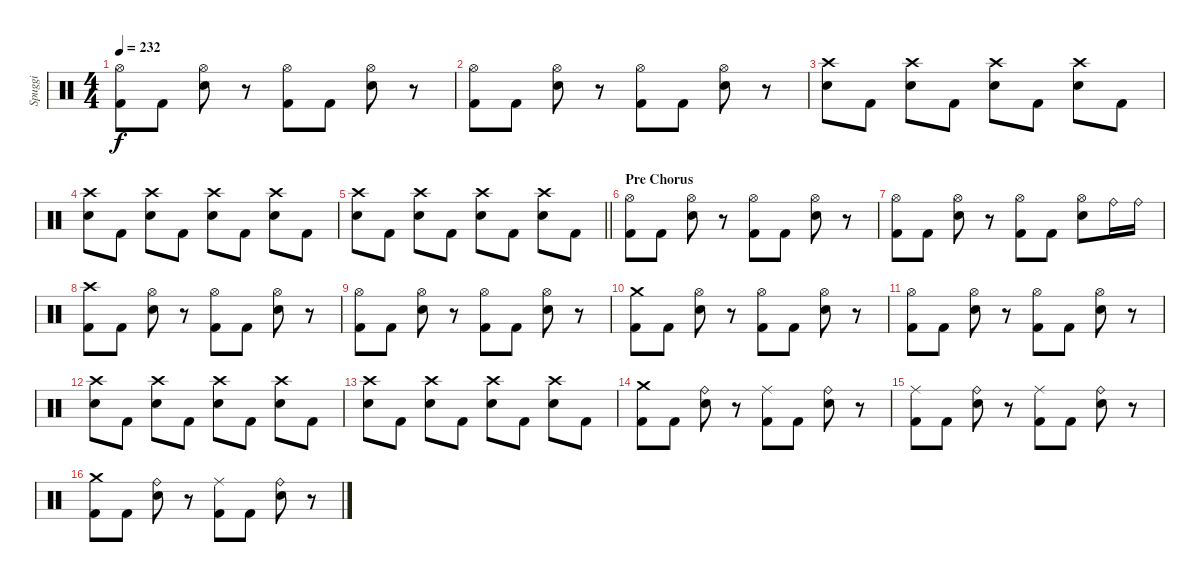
\track ("Spuggi" "Spuggi") {instrument percussion}
\staff {score}
\articulation defaults
\ts (4 4)
\tempo 232
\clef neutral
\ks c
("Hi-Hat (open)" "Kick (hit) 2").8{dy f} "Kick (hit) 2".8 ("Hi-Hat (open)" "Snare (hit) 2").8 r.8 ("Hi-Hat (open)" "Kick (hit) 2").8 "Kick (hit) 2".8 ("Hi-Hat (open)" "Snare (hit) 2").8 r.8 |
("Hi-Hat (open)" "Kick (hit) 2").8 "Kick (hit) 2".8 ("Hi-Hat (open)" "Snare (hit) 2").8 r.8 ("Hi-Hat (open)" "Kick (hit) 2").8 "Kick (hit) 2".8 ("Hi-Hat (open)" "Snare (hit) 2").8 r.8 |
("Crash high (hit)" "Snare (hit) 2").8 "Kick (hit) 2".8 ("Crash high (hit)" "Snare (hit) 2").8 "Kick (hit) 2".8 ("Crash high (hit)" "Snare (hit) 2").8 "Kick (hit) 2".8 ("Crash high (hit)" "Snare (hit) 2").8 "Kick (hit) 2".8 |
("Crash high (hit)" "Snare (hit) 2").8 "Kick (hit) 2".8 ("Crash high (hit)" "Snare (hit) 2").8 "Kick (hit) 2".8 ("Crash high (hit)" "Snare (hit) 2").8 "Kick (hit) 2".8 ("Crash high (hit)" "Snare (hit) 2").8 "Kick (hit) 2".8 |
\barLineRight lightlight
("Crash high (hit)" "Snare (hit) 2").8 "Kick (hit) 2".8 ("Crash high (hit)" "Snare (hit) 2").8 "Kick (hit) 2".8 ("Crash high (hit)" "Snare (hit) 2").8 "Kick (hit) 2".8 ("Crash high (hit)" "Snare (hit) 2").8 "Kick (hit) 2".8 |
\section ("" "Pre Chorus ")
("Hi-Hat (open)" "Kick (hit) 2").8 "Kick (hit) 2".8 ("Hi-Hat (open)" "Snare (hit) 2").8 r.8 ("Hi-Hat (open)" "Kick (hit) 2").8 "Kick (hit) 2".8 ("Hi-Hat (open)" "Snare (hit) 2").8 r.8 |
("Hi-Hat (open)" "Kick (hit) 2").8 "Kick (hit) 2".8 ("Hi-Hat (open)" "Snare (hit) 2").8 r.8 ("Hi-Hat (open)" "Kick (hit) 2").8 "Kick (hit) 2".8 ("Hi-Hat (open)" "Snare (hit) 2").8 "Ride (bell)".16 "Ride (bell)".16 |
("Crash high (hit)" "Kick (hit) 2").8 "Kick (hit) 2".8 ("Hi-Hat (open)" "Snare (hit) 2").8 r.8 ("Hi-Hat (open)" "Kick (hit) 2").8 "Kick (hit) 2".8 ("Hi-Hat (open)" "Snare (hit) 2").8 r.8 |
("Hi-Hat (open)" "Kick (hit) 2").8 "Kick (hit) 2".8 ("Hi-Hat (open)" "Snare (hit) 2").8 r.8 ("Hi-Hat (open)" "Kick (hit) 2").8 "Kick (hit) 2".8 ("Hi-Hat (open)" "Snare (hit) 2").8 r.8 |
("Crash medium (hit)" "Kick (hit) 2").8 "Kick (hit) 2".8 ("Hi-Hat (open)" "Snare (hit) 2").8 r.8 ("Hi-Hat (open)" "Kick (hit) 2").8 "Kick (hit) 2".8 ("Hi-Hat (open)" "Snare (hit) 2").8 r.8 |
("Hi-Hat (open)" "Kick (hit) 2").8 "Kick (hit) 2".8 ("Hi-Hat (open)" "Snare (hit) 2").8 r.8 ("Hi-Hat (open)" "Kick (hit) 2").8 "Kick (hit) 2".8 ("Hi-Hat (open)" "Snare (hit) 2").8 r.8 |
("Crash high (hit)" "Snare (hit) 2").8 "Kick (hit) 2".8 ("Crash high (hit)" "Snare (hit) 2").8 "Kick (hit) 2".8 ("Crash high (hit)" "Snare (hit) 2").8 "Kick (hit) 2".8 ("Crash high (hit)" "Snare (hit) 2").8 "Kick (hit) 2".8 |
("Crash high (hit)" "Snare (hit) 2").8 "Kick (hit) 2".8 ("Crash high (hit)" "Snare (hit) 2").8 "Kick (hit) 2".8 ("Crash high (hit)" "Snare (hit) 2").8 "Kick (hit) 2".8 ("Crash high (hit)" "Snare (hit) 2").8 "Kick (hit) 2".8 |
("Crash medium (hit)" "Kick (hit) 2").8 "Kick (hit) 2".8 ("Ride (bell)" "Snare (hit) 2").8 r.8 ("Ride (middle)" "Kick (hit) 2").8 "Kick (hit) 2".8 ("Ride (bell)" "Snare (hit) 2").8 r.8 |
("Ride (middle)" "Kick (hit) 2").8 "Kick (hit) 2".8 ("Ride (bell)" "Snare (hit) 2").8 r.8 ("Ride (middle)" "Kick (hit) 2").8 "Kick (hit) 2".8 ("Ride (bell)" "Snare (hit) 2").8 r.8 |
("Crash medium (hit)" "Kick (hit) 2").8 "Kick (hit) 2".8 ("Ride (bell)" "Snare (hit) 2").8 r.8 ("Ride (middle)" "Kick (hit) 2").8 "Kick (hit) 2".8 ("Ride (bell)" "Snare (hit) 2").8 r.8
